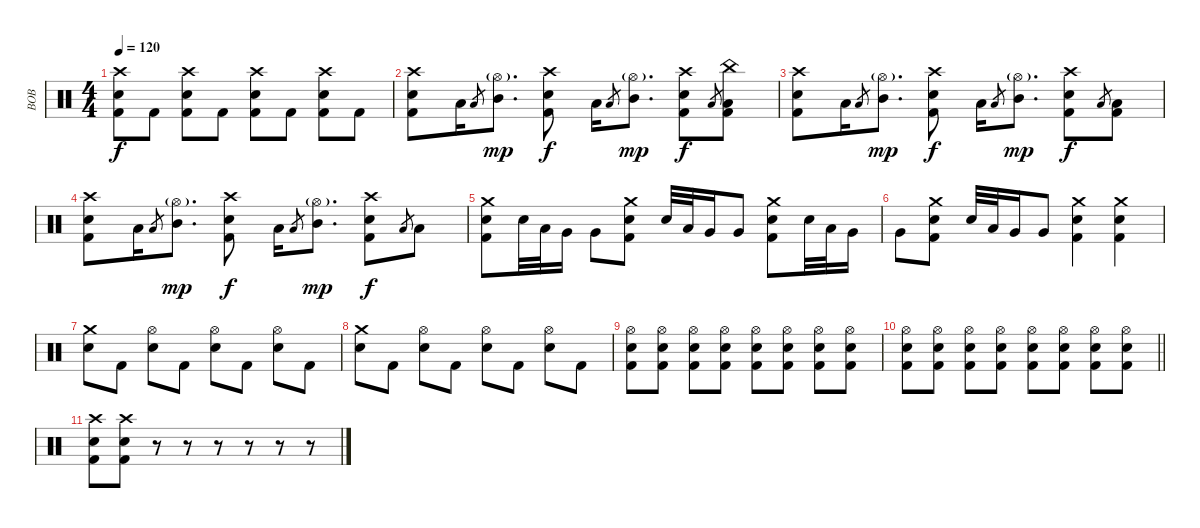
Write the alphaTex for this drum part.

\track ("BOB" "BOB") {instrument percussion}
\staff {score}
\articulation defaults
\ts (4 4)
\tempo 120
\clef neutral
\ks c
("Crash high (hit)" "Electric Snare (hit)" "Kick (hit) 2").8{dy f} "Kick (hit) 2".8 ("Crash high (hit)" "Electric Snare (hit)" "Kick (hit) 2").8 "Kick (hit) 2".8 ("Crash high (hit)" "Electric Snare (hit)" "Kick (hit) 2").8 "Kick (hit) 2".8 ("Crash high (hit)" "Electric Snare (hit)" "Kick (hit) 2").8 "Kick (hit) 2".8 |
("Crash high (hit)" "Electric Snare (hit)" "Kick (hit) 2").8 "Low Tom (hit)".16 "Low Floor Tom (hit)".8{gr} ("Hi-Hat (open)"{g} "Mid Tom (hit)").8{d dy mp} ("Crash high (hit)" "Electric Snare (hit)" "Kick (hit) 2").8{dy f} "Low Tom (hit)".16 "Low Floor Tom (hit)".8{gr} ("Hi-Hat (open)"{g} "Mid Tom (hit)").8{d dy mp} ("Crash high (hit)" "Electric Snare (hit)" "Kick (hit) 2").8{dy f} "Low Floor Tom (hit)".8{gr} ("China (hit)" "Low Tom (hit)" "Kick (hit) 2").8 |
("Crash high (hit)" "Electric Snare (hit)" "Kick (hit) 2").8 "Low Tom (hit)".16 "Low Floor Tom (hit)".8{gr} ("Hi-Hat (open)"{g} "Mid Tom (hit)").8{d dy mp} ("Crash high (hit)" "Electric Snare (hit)" "Kick (hit) 2").8{dy f} "Low Tom (hit)".16 "Low Floor Tom (hit)".8{gr} ("Hi-Hat (open)"{g} "Mid Tom (hit)").8{d dy mp} ("Crash high (hit)" "Electric Snare (hit)" "Kick (hit) 2").8{dy f} "Low Floor Tom (hit)".8{gr} ("Low Tom (hit)" "Kick (hit) 2").8 |
("Crash high (hit)" "Electric Snare (hit)" "Kick (hit) 2").8 "Low Tom (hit)".16 "Low Floor Tom (hit)".8{gr} ("Hi-Hat (open)"{g} "Mid Tom (hit)").8{d dy mp} ("Crash high (hit)" "Electric Snare (hit)" "Kick (hit) 2").8{dy f} "Low Tom (hit)".16 "Low Floor Tom (hit)".8{gr} ("Hi-Hat (open)"{g} "Mid Tom (hit)").8{d dy mp} ("Crash high (hit)" "Electric Snare (hit)" "Kick (hit) 2").8{dy f} "Low Floor Tom (hit)".8{gr} "Low Tom (hit)".8 |
("Crash medium (hit)" "Electric Snare (hit)" "Kick (hit) 2").8 "Electric Snare (hit)".32 "Low Tom (hit)".32 "Very Low Tom (hit)".16 "Very Low Tom (hit)".8 ("Crash medium (hit)" "Electric Snare (hit)" "Kick (hit) 2").8 "Electric Snare (hit)".32 "Low Tom (hit)".32 "Very Low Tom (hit)".16 "Very Low Tom (hit)".8 ("Crash medium (hit)" "Electric Snare (hit)" "Kick (hit) 2").8 "Electric Snare (hit)".32 "Low Tom (hit)".32 "Very Low Tom (hit)".16 |
"Very Low Tom (hit)".8 ("Crash medium (hit)" "Electric Snare (hit)" "Kick (hit) 2").8 "Electric Snare (hit)".32 "Low Tom (hit)".32 "Very Low Tom (hit)".16 "Very Low Tom (hit)".8 ("Crash medium (hit)" "Electric Snare (hit)" "Kick (hit) 2").4 ("Crash medium (hit)" "Electric Snare (hit)" "Kick (hit) 2").4 |
("Crash medium (hit)" "Electric Snare (hit)").8 "Kick (hit) 2".8 ("Hi-Hat (open)" "Electric Snare (hit)").8 "Kick (hit) 2".8 ("Hi-Hat (open)" "Electric Snare (hit)").8 "Kick (hit) 2".8 ("Hi-Hat (open)" "Electric Snare (hit)").8 "Kick (hit) 2".8 |
("Crash medium (hit)" "Electric Snare (hit)").8 "Kick (hit) 2".8 ("Hi-Hat (open)" "Electric Snare (hit)").8 "Kick (hit) 2".8 ("Hi-Hat (open)" "Electric Snare (hit)").8 "Kick (hit) 2".8 ("Hi-Hat (open)" "Electric Snare (hit)").8 "Kick (hit) 2".8 |
("Hi-Hat (open)" "Electric Snare (hit)" "Kick (hit) 2").8{volume 8} ("Hi-Hat (open)" "Electric Snare (hit)" "Kick (hit) 2").8{volume 13} ("Hi-Hat (open)" "Electric Snare (hit)" "Kick (hit) 2").8 ("Hi-Hat (open)" "Electric Snare (hit)" "Kick (hit) 2").8 ("Hi-Hat (open)" "Electric Snare (hit)" "Kick (hit) 2").8 ("Hi-Hat (open)" "Electric Snare (hit)" "Kick (hit) 2").8 ("Hi-Hat (open)" "Electric Snare (hit)" "Kick (hit) 2").8 ("Hi-Hat (open)" "Electric Snare (hit)" "Kick (hit) 2").8 |
\barLineRight lightlight
("Hi-Hat (open)" "Electric Snare (hit)" "Kick (hit) 2").8 ("Hi-Hat (open)" "Electric Snare (hit)" "Kick (hit) 2").8 ("Hi-Hat (open)" "Electric Snare (hit)" "Kick (hit) 2").8 ("Hi-Hat (open)" "Electric Snare (hit)" "Kick (hit) 2").8 ("Hi-Hat (open)" "Electric Snare (hit)" "Kick (hit) 2").8 ("Hi-Hat (open)" "Electric Snare (hit)" "Kick (hit) 2").8 ("Hi-Hat (open)" "Electric Snare (hit)" "Kick (hit) 2").8 ("Hi-Hat (open)" "Electric Snare (hit)" "Kick (hit) 2").8 |
("Crash high (hit)" "Electric Snare (hit)" "Kick (hit) 2").8 ("Crash high (hit)" "Electric Snare (hit)" "Kick (hit) 2").8 r.8 r.8 r.8 r.8 r.8 r.8
